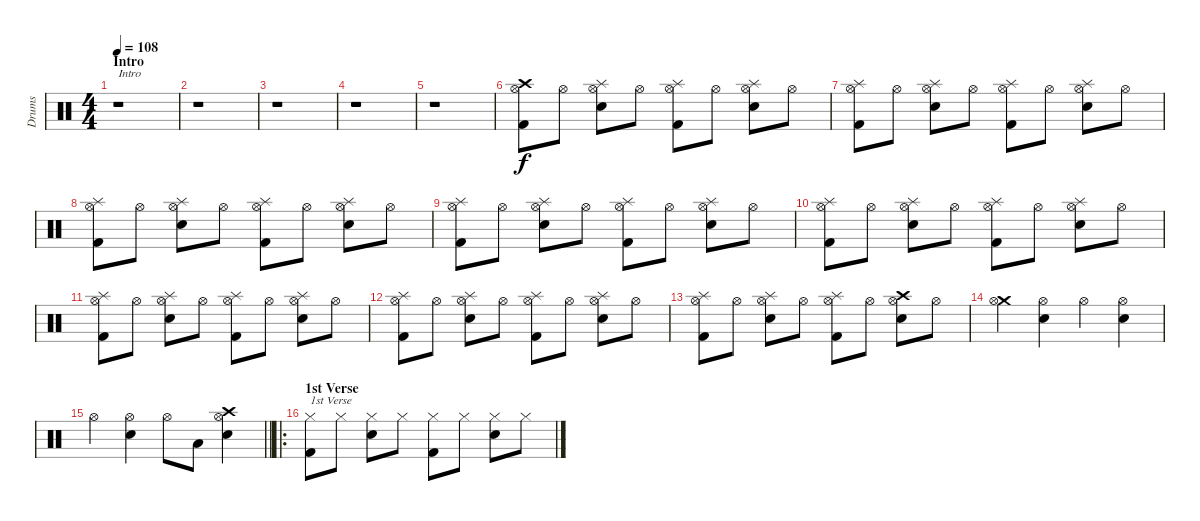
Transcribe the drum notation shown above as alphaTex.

\track ("Drums" "Drums") {instrument percussion}
\staff {score}
\articulation defaults
\ts (4 4)
\section ("" "Intro")
\tempo 108
\clef neutral
\ks c
r.1{txt "Intro" dy f} |
r.1 |
r.1 |
r.1 |
r.1 |
("Crash high (hit)" "Hi-Hat (open)" "Kick (hit) 2").8 "Hi-Hat (open)".8 ("Splash (hit)" "Hi-Hat (open)" "Snare (hit) 2").8 "Hi-Hat (open)".8 ("Splash (hit)" "Hi-Hat (open)" "Kick (hit) 2").8 "Hi-Hat (open)".8 ("Splash (hit)" "Hi-Hat (open)" "Snare (hit) 2").8 "Hi-Hat (open)".8 |
("Splash (hit)" "Hi-Hat (open)" "Kick (hit) 2").8 "Hi-Hat (open)".8 ("Splash (hit)" "Hi-Hat (open)" "Snare (hit) 2").8 "Hi-Hat (open)".8 ("Splash (hit)" "Hi-Hat (open)" "Kick (hit) 2").8 "Hi-Hat (open)".8 ("Splash (hit)" "Hi-Hat (open)" "Snare (hit) 2").8 "Hi-Hat (open)".8 |
("Splash (hit)" "Hi-Hat (open)" "Kick (hit) 2").8 "Hi-Hat (open)".8 ("Splash (hit)" "Hi-Hat (open)" "Snare (hit) 2").8 "Hi-Hat (open)".8 ("Splash (hit)" "Hi-Hat (open)" "Kick (hit) 2").8 "Hi-Hat (open)".8 ("Splash (hit)" "Hi-Hat (open)" "Snare (hit) 2").8 "Hi-Hat (open)".8 |
("Splash (hit)" "Hi-Hat (open)" "Kick (hit) 2").8 "Hi-Hat (open)".8 ("Splash (hit)" "Hi-Hat (open)" "Snare (hit) 2").8 "Hi-Hat (open)".8 ("Splash (hit)" "Hi-Hat (open)" "Kick (hit) 2").8 "Hi-Hat (open)".8 ("Splash (hit)" "Hi-Hat (open)" "Snare (hit) 2").8 "Hi-Hat (open)".8 |
("Splash (hit)" "Hi-Hat (open)" "Kick (hit) 2").8 "Hi-Hat (open)".8 ("Splash (hit)" "Hi-Hat (open)" "Snare (hit) 2").8 "Hi-Hat (open)".8 ("Splash (hit)" "Hi-Hat (open)" "Kick (hit) 2").8 "Hi-Hat (open)".8 ("Splash (hit)" "Hi-Hat (open)" "Snare (hit) 2").8 "Hi-Hat (open)".8 |
("Splash (hit)" "Hi-Hat (open)" "Kick (hit) 2").8 "Hi-Hat (open)".8 ("Splash (hit)" "Hi-Hat (open)" "Snare (hit) 2").8 "Hi-Hat (open)".8 ("Splash (hit)" "Hi-Hat (open)" "Kick (hit) 2").8 "Hi-Hat (open)".8 ("Splash (hit)" "Hi-Hat (open)" "Snare (hit) 2").8 "Hi-Hat (open)".8 |
("Splash (hit)" "Hi-Hat (open)" "Kick (hit) 2").8 "Hi-Hat (open)".8 ("Splash (hit)" "Hi-Hat (open)" "Snare (hit) 2").8 "Hi-Hat (open)".8 ("Splash (hit)" "Hi-Hat (open)" "Kick (hit) 2").8 "Hi-Hat (open)".8 ("Splash (hit)" "Hi-Hat (open)" "Snare (hit) 2").8 "Hi-Hat (open)".8 |
("Splash (hit)" "Hi-Hat (open)" "Kick (hit) 2").8 "Hi-Hat (open)".8 ("Splash (hit)" "Hi-Hat (open)" "Snare (hit) 2").8 "Hi-Hat (open)".8 ("Splash (hit)" "Hi-Hat (open)" "Kick (hit) 2").8 "Hi-Hat (open)".8 ("Crash high (hit)" "Hi-Hat (open)" "Snare (hit) 2").8 "Hi-Hat (open)".8 |
("Crash medium (hit)" "Hi-Hat (open)").4 ("Hi-Hat (open)" "Snare (hit) 2").4 "Hi-Hat (open)".4 ("Hi-Hat (open)" "Snare (hit) 2").4 |
\barLineRight lightlight "Hi-Hat (open)".4
("Hi-Hat (open)" "Snare (hit) 2").4 "Hi-Hat (open)".8 "Low Floor Tom (hit)".8 ("Crash high (hit)" "Hi-Hat (open)" "Snare (hit) 2").4 |
\ro
\section ("" "1st Verse")
("Hi-Hat (closed)" "Kick (hit) 2").8{txt "1st Verse"} "Hi-Hat (closed)".8 ("Hi-Hat (closed)" "Snare (hit) 2").8 "Hi-Hat (closed)".8 ("Hi-Hat (closed)" "Kick (hit) 2").8 "Hi-Hat (closed)".8 ("Hi-Hat (closed)" "Snare (hit) 2").8 "Hi-Hat (closed)".8
